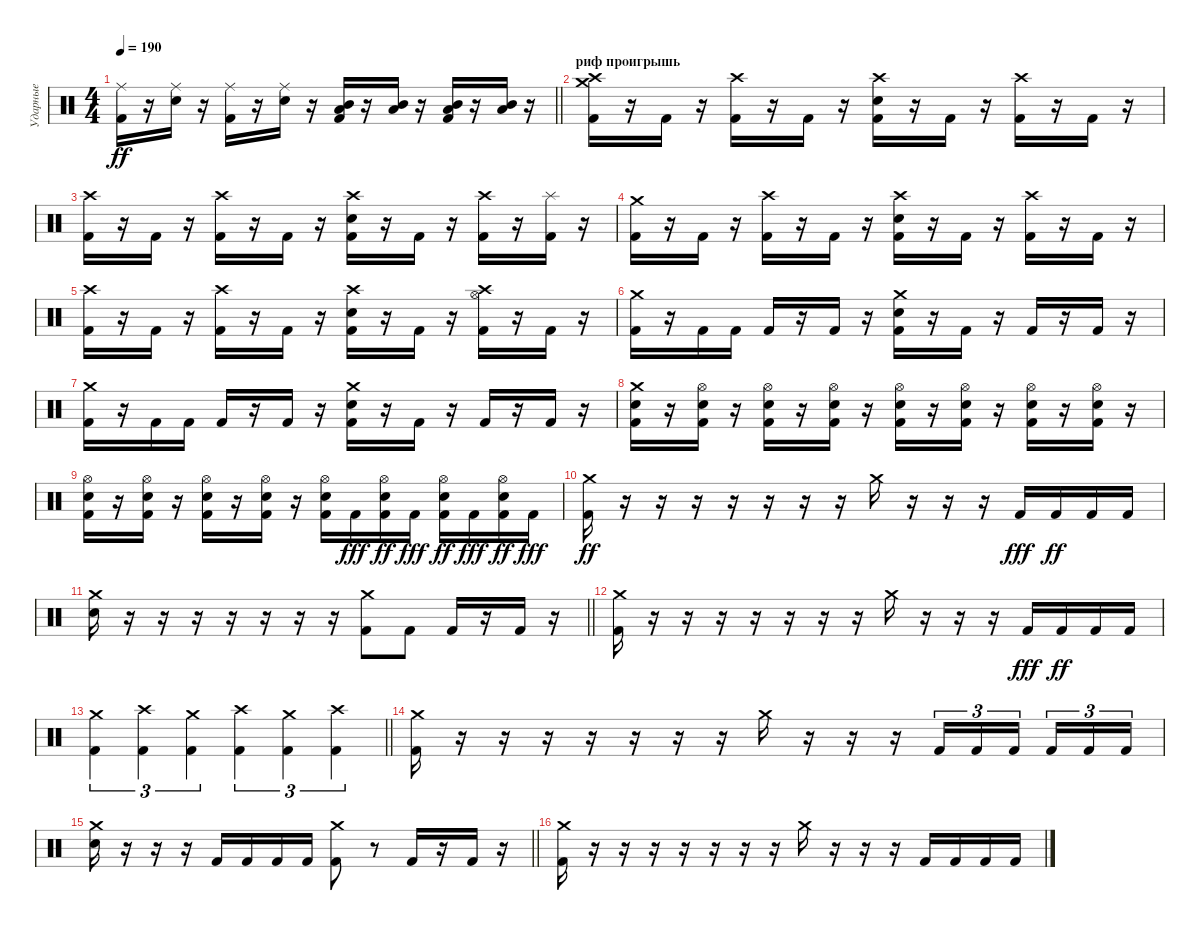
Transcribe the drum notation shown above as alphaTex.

\track ("Ударные" "Ударные") {instrument percussion}
\staff {score}
\articulation defaults
\ts (4 4)
\tempo 190
\clef neutral
\barLineRight lightlight
\ks c
("Ride (middle)" "Kick (hit) 2").16{dy ff} r.16 ("Ride (middle)" "Electric Snare (hit)").16 r.16 ("Ride (middle)" "Kick (hit) 2").16 r.16 ("Ride (middle)" "Electric Snare (hit)").16 r.16 ("Mid Tom (hit)" "Low Tom (hit)" "Kick (hit) 2").16 r.16 ("Mid Tom (hit)" "Low Tom (hit)").16 r.16 ("Mid Tom (hit)" "Low Tom (hit)" "Kick (hit) 2").16 r.16 ("Low Tom (hit)" "Mid Tom (hit)").16 r.16 |
\section ("" "риф проигрышь")
("Crash medium (hit)" "Crash high (hit)" "Kick (hit) 2").16 r.16 "Kick (hit) 2".16 r.16 ("Crash high (hit)" "Kick (hit) 2").16 r.16 "Kick (hit) 2".16 r.16 ("Crash high (hit)" "Electric Snare (hit)" "Kick (hit) 2").16 r.16 "Kick (hit) 2".16 r.16 ("Crash high (hit)" "Kick (hit) 2").16 r.16 "Kick (hit) 2".16 r.16 |
("Crash high (hit)" "Kick (hit) 2").16 r.16 "Kick (hit) 2".16 r.16 ("Crash high (hit)" "Kick (hit) 2").16 r.16 "Kick (hit) 2".16 r.16 ("Crash high (hit)" "Electric Snare (hit)" "Kick (hit) 2").16 r.16 "Kick (hit) 2".16 r.16 ("Crash high (hit)" "Kick (hit) 2").16 r.16 ("Splash (hit)" "Kick (hit) 2").16 r.16 |
("Crash medium (hit)" "Kick (hit) 2").16 r.16 "Kick (hit) 2".16 r.16 ("Crash high (hit)" "Kick (hit) 2").16 r.16 "Kick (hit) 2".16 r.16 ("Crash high (hit)" "Electric Snare (hit)" "Kick (hit) 2").16 r.16 "Kick (hit) 2".16 r.16 ("Crash high (hit)" "Kick (hit) 2").16 r.16 "Kick (hit) 2".16 r.16 |
("Crash high (hit)" "Kick (hit) 2").16 r.16 "Kick (hit) 2".16 r.16 ("Crash high (hit)" "Kick (hit) 2").16 r.16 "Kick (hit) 2".16 r.16 ("Crash high (hit)" "Electric Snare (hit)" "Kick (hit) 2").16 r.16 "Kick (hit) 2".16 r.16 ("Crash high (hit)" "Hi-Hat (open)" "Kick (hit) 2").16 r.16 "Kick (hit) 2".16 r.16 |
("Crash medium (hit)" "Kick (hit) 2").16 r.16 "Kick (hit) 2".16 "Kick (hit) 2".16 "Kick (hit) 2".16 r.16 "Kick (hit) 2".16 r.16 ("Crash medium (hit)" "Electric Snare (hit)" "Kick (hit) 2").16 r.16 "Kick (hit) 2".16 r.16 "Kick (hit) 2".16 r.16 "Kick (hit) 2".16 r.16 |
("Crash medium (hit)" "Kick (hit) 2").16 r.16 "Kick (hit) 2".16 "Kick (hit) 2".16 "Kick (hit) 2".16 r.16 "Kick (hit) 2".16 r.16 ("Crash medium (hit)" "Electric Snare (hit)" "Kick (hit) 2").16 r.16 "Kick (hit) 2".16 r.16 "Kick (hit) 2".16 r.16 "Kick (hit) 2".16 r.16 |
("Crash medium (hit)" "Electric Snare (hit)" "Kick (hit) 2").16 r.16 ("Hi-Hat (open)" "Electric Snare (hit)" "Kick (hit) 2").16 r.16 ("Hi-Hat (open)" "Electric Snare (hit)" "Kick (hit) 2").16 r.16 ("Hi-Hat (open)" "Electric Snare (hit)" "Kick (hit) 2").16 r.16 ("Hi-Hat (open)" "Electric Snare (hit)" "Kick (hit) 2").16 r.16 ("Hi-Hat (open)" "Electric Snare (hit)" "Kick (hit) 2").16 r.16 ("Hi-Hat (open)" "Electric Snare (hit)" "Kick (hit) 2").16 r.16 ("Hi-Hat (open)" "Electric Snare (hit)" "Kick (hit) 2").16 r.16 |
("Hi-Hat (open)" "Electric Snare (hit)" "Kick (hit) 2").16 r.16 ("Hi-Hat (open)" "Electric Snare (hit)" "Kick (hit) 2").16 r.16 ("Hi-Hat (open)" "Electric Snare (hit)" "Kick (hit) 2").16 r.16 ("Hi-Hat (open)" "Electric Snare (hit)" "Kick (hit) 2").16 r.16 ("Hi-Hat (open)" "Electric Snare (hit)" "Kick (hit) 2").16 "Kick (hit) 2".16{dy fff} ("Hi-Hat (open)" "Electric Snare (hit)" "Kick (hit) 2").16{dy ff} "Kick (hit) 2".16{dy fff} ("Hi-Hat (open)" "Electric Snare (hit)" "Kick (hit) 2").16{dy ff} "Kick (hit) 2".16{dy fff} ("Hi-Hat (open)" "Electric Snare (hit)" "Kick (hit) 2").16{dy ff} "Kick (hit) 2".16{dy fff} |
("Crash medium (hit)" "Kick (hit) 2").16{dy ff} r.16 r.16 r.16 r.16 r.16 r.16 r.16 "Crash medium (hit)".16 r.16 r.16 r.16 "Kick (hit) 2".16{dy fff} "Kick (hit) 2".16{dy ff} "Kick (hit) 2".16 "Kick (hit) 2".16 |
\barLineRight lightlight
("Crash medium (hit)" "Electric Snare (hit)").16 r.16 r.16 r.16 r.16 r.16 r.16 r.16 ("Crash medium (hit)" "Kick (hit) 2").8 "Kick (hit) 2".8 "Kick (hit) 2".16 r.16 "Kick (hit) 2".16 r.16 |
("Crash medium (hit)" "Kick (hit) 2").16 r.16 r.16 r.16 r.16 r.16 r.16 r.16 "Crash medium (hit)".16 r.16 r.16 r.16 "Kick (hit) 2".16{dy fff} "Kick (hit) 2".16{dy ff} "Kick (hit) 2".16 "Kick (hit) 2".16 |
\barLineRight lightlight
("Crash medium (hit)" "Kick (hit) 2").4{tu (3 2)} ("Crash high (hit)" "Kick (hit) 2").4{tu (3 2)} ("Crash medium (hit)" "Kick (hit) 2").4{tu (3 2)} ("Crash high (hit)" "Kick (hit) 2").4{tu (3 2)} ("Crash medium (hit)" "Kick (hit) 2").4{tu (3 2)} ("Crash high (hit)" "Kick (hit) 2").4{tu (3 2)} |
("Crash medium (hit)" "Kick (hit) 2").16 r.16 r.16 r.16 r.16 r.16 r.16 r.16 "Crash medium (hit)".16 r.16 r.16 r.16 "Kick (hit) 2".16{tu (3 2)} "Kick (hit) 2".16{tu (3 2)} "Kick (hit) 2".16{tu (3 2) beam splitsecondary} "Kick (hit) 2".16{tu (3 2)} "Kick (hit) 2".16{tu (3 2)} "Kick (hit) 2".16{tu (3 2)} |
\barLineRight lightlight
("Crash medium (hit)" "Electric Snare (hit)").16 r.16 r.16 r.16 "Kick (hit) 2".16 "Kick (hit) 2".16 "Kick (hit) 2".16 "Kick (hit) 2".16 ("Crash medium (hit)" "Kick (hit) 2").8 r.8 "Kick (hit) 2".16 r.16 "Kick (hit) 2".16 r.16 |
("Crash medium (hit)" "Kick (hit) 2").16 r.16 r.16 r.16 r.16 r.16 r.16 r.16 "Crash medium (hit)".16 r.16 r.16 r.16 "Kick (hit) 2".16 "Kick (hit) 2".16 "Kick (hit) 2".16 "Kick (hit) 2".16
